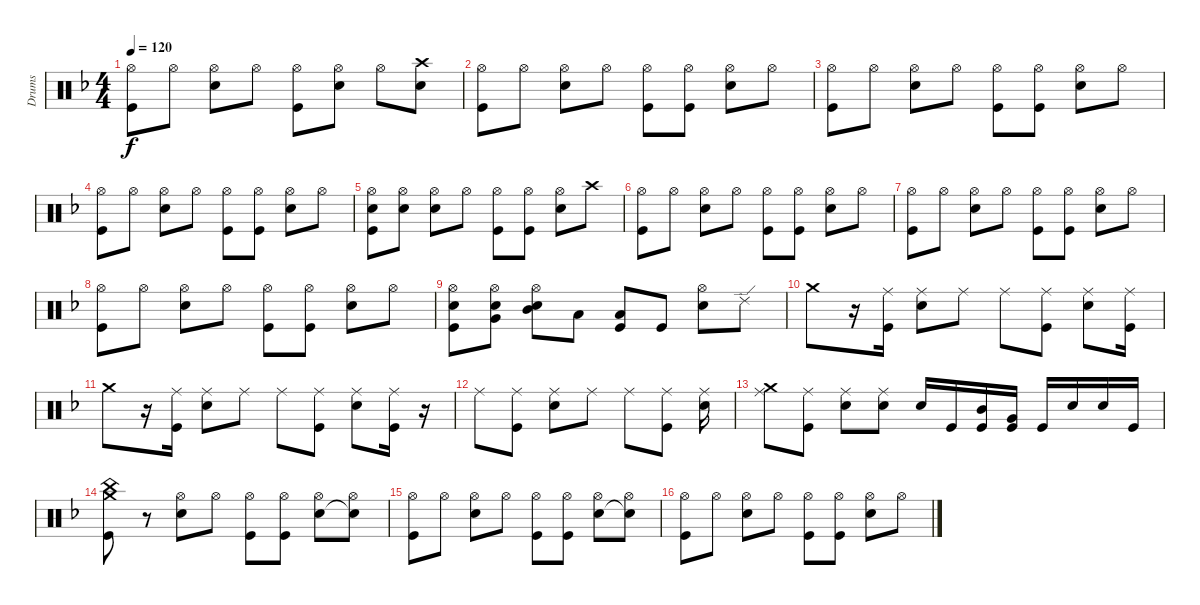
\track ("Drums" "Drums") {instrument percussion}
\staff {score}
\articulation defaults
\ts (4 4)
\tempo 120
\clef neutral
\ks f
("Hi-Hat (open)" "Kick (hit)").8{dy f} "Hi-Hat (open)".8 ("Hi-Hat (open)" "Snare (hit) 2").8 "Hi-Hat (open)".8 ("Hi-Hat (open)" "Kick (hit)").8 ("Hi-Hat (open)" "Snare (hit) 2").8 "Hi-Hat (open)".8 ("Crash high (hit)" "Snare (hit) 2").8 |
("Hi-Hat (open)" "Kick (hit)").8 "Hi-Hat (open)".8 ("Hi-Hat (open)" "Snare (hit) 2").8 "Hi-Hat (open)".8 ("Hi-Hat (open)" "Kick (hit)").8 ("Hi-Hat (open)" "Kick (hit)").8 ("Hi-Hat (open)" "Snare (hit) 2").8 "Hi-Hat (open)".8 |
("Hi-Hat (open)" "Kick (hit)").8 "Hi-Hat (open)".8 ("Hi-Hat (open)" "Snare (hit) 2").8 "Hi-Hat (open)".8 ("Hi-Hat (open)" "Kick (hit)").8 ("Hi-Hat (open)" "Kick (hit)").8 ("Hi-Hat (open)" "Snare (hit) 2").8 "Hi-Hat (open)".8 |
("Hi-Hat (open)" "Kick (hit)").8 "Hi-Hat (open)".8 ("Hi-Hat (open)" "Snare (hit) 2").8 "Hi-Hat (open)".8 ("Hi-Hat (open)" "Kick (hit)").8 ("Hi-Hat (open)" "Kick (hit)").8 ("Hi-Hat (open)" "Snare (hit) 2").8 "Hi-Hat (open)".8 |
("Hi-Hat (open)" "Snare (hit) 2" "Kick (hit)").8 ("Hi-Hat (open)" "Snare (hit) 2").8 ("Hi-Hat (open)" "Snare (hit) 2").8 "Hi-Hat (open)".8 ("Hi-Hat (open)" "Kick (hit)").8 ("Hi-Hat (open)" "Kick (hit)").8 ("Hi-Hat (open)" "Snare (hit) 2").8 "Crash high (hit)".8 |
("Hi-Hat (open)" "Kick (hit)").8 "Hi-Hat (open)".8 ("Hi-Hat (open)" "Snare (hit) 2").8 "Hi-Hat (open)".8 ("Hi-Hat (open)" "Kick (hit)").8 ("Hi-Hat (open)" "Kick (hit)").8 ("Hi-Hat (open)" "Snare (hit) 2").8 "Hi-Hat (open)".8 |
("Hi-Hat (open)" "Kick (hit)").8 "Hi-Hat (open)".8 ("Hi-Hat (open)" "Snare (hit) 2").8 "Hi-Hat (open)".8 ("Hi-Hat (open)" "Kick (hit)").8 ("Hi-Hat (open)" "Kick (hit)").8 ("Hi-Hat (open)" "Snare (hit) 2").8 "Hi-Hat (open)".8 |
("Hi-Hat (open)" "Kick (hit)").8 "Hi-Hat (open)".8 ("Hi-Hat (open)" "Snare (hit) 2").8 "Hi-Hat (open)".8 ("Hi-Hat (open)" "Kick (hit)").8 ("Hi-Hat (open)" "Kick (hit)").8 ("Hi-Hat (open)" "Snare (hit) 2").8 "Hi-Hat (open)".8 |
("Hi-Hat (open)" "Snare (hit) 2" "Kick (hit)").8 ("Hi-Hat (open)" "Snare (hit) 2" "Very Low Tom (hit)").8 ("Hi-Hat (open)" "Snare (hit) 2" "Mid Tom (hit)").8 "Low Tom (hit)".8 ("Low Tom (hit)" "Kick (hit)").8 "Kick (hit)".8 ("Hi-Hat (open)" "Snare (hit) 2").8 "Ride (edge) 2".8 |
"Crash medium (hit)".8 r.16 ("Ride (middle)" "Kick (hit)").16 ("Ride (middle)" "Snare (hit) 2").8 "Ride (middle)".8 "Ride (middle)".8 ("Ride (middle)" "Kick (hit)").8 ("Ride (middle)" "Snare (hit) 2").8 ("Ride (middle)" "Kick (hit)").16 |
"Crash medium (hit)".8 r.16 ("Ride (middle)" "Kick (hit)").16 ("Ride (middle)" "Snare (hit) 2").8 "Ride (middle)".8 "Ride (middle)".8 ("Ride (middle)" "Kick (hit)").8 ("Ride (middle)" "Snare (hit) 2").8 ("Ride (middle)" "Kick (hit)").16 r.16 |
"Ride (middle)".8 ("Ride (middle)" "Kick (hit)").8 ("Ride (middle)" "Snare (hit) 2").8 "Ride (middle)".8 "Ride (middle)".8 ("Ride (middle)" "Kick (hit)").8 ("Ride (middle)" "Snare (hit) 2").16 |
("Ride (middle)" "Crash medium (hit)").8 ("Ride (middle)" "Kick (hit)").8 ("Ride (middle)" "Snare (hit) 2").8 ("Ride (middle)" "Snare (hit) 2").8 "Snare (hit) 2".16 "Kick (hit)".16 ("Mid Tom (hit)" "Kick (hit)").16 ("Very Low Tom (hit)" "Kick (hit)").16 "Kick (hit)".16 "Snare (hit) 2".16 "Snare (hit) 2".16 "Kick (hit)".16 |
("Crash medium (hit)" "China (hit)" "Kick (hit)").8 r.8 ("Hi-Hat (open)" "Snare (hit) 2").8 "Hi-Hat (open)".8 ("Hi-Hat (open)" "Kick (hit)").8 ("Hi-Hat (open)" "Kick (hit)").8 ("Hi-Hat (open)" "Snare (hit) 2").8 ("Hi-Hat (open)" "Snare (hit)"{t}).8 |
("Hi-Hat (open)" "Kick (hit)").8 "Hi-Hat (open)".8 ("Hi-Hat (open)" "Snare (hit) 2").8 "Hi-Hat (open)".8 ("Hi-Hat (open)" "Kick (hit)").8 ("Hi-Hat (open)" "Kick (hit)").8 ("Hi-Hat (open)" "Snare (hit) 2").8 ("Hi-Hat (open)" "Snare (hit)"{t}).8 |
("Hi-Hat (open)" "Kick (hit)").8 "Hi-Hat (open)".8 ("Hi-Hat (open)" "Snare (hit) 2").8 "Hi-Hat (open)".8 ("Hi-Hat (open)" "Kick (hit)").8 ("Hi-Hat (open)" "Kick (hit)").8 ("Hi-Hat (open)" "Snare (hit) 2").8 "Hi-Hat (open)".8
